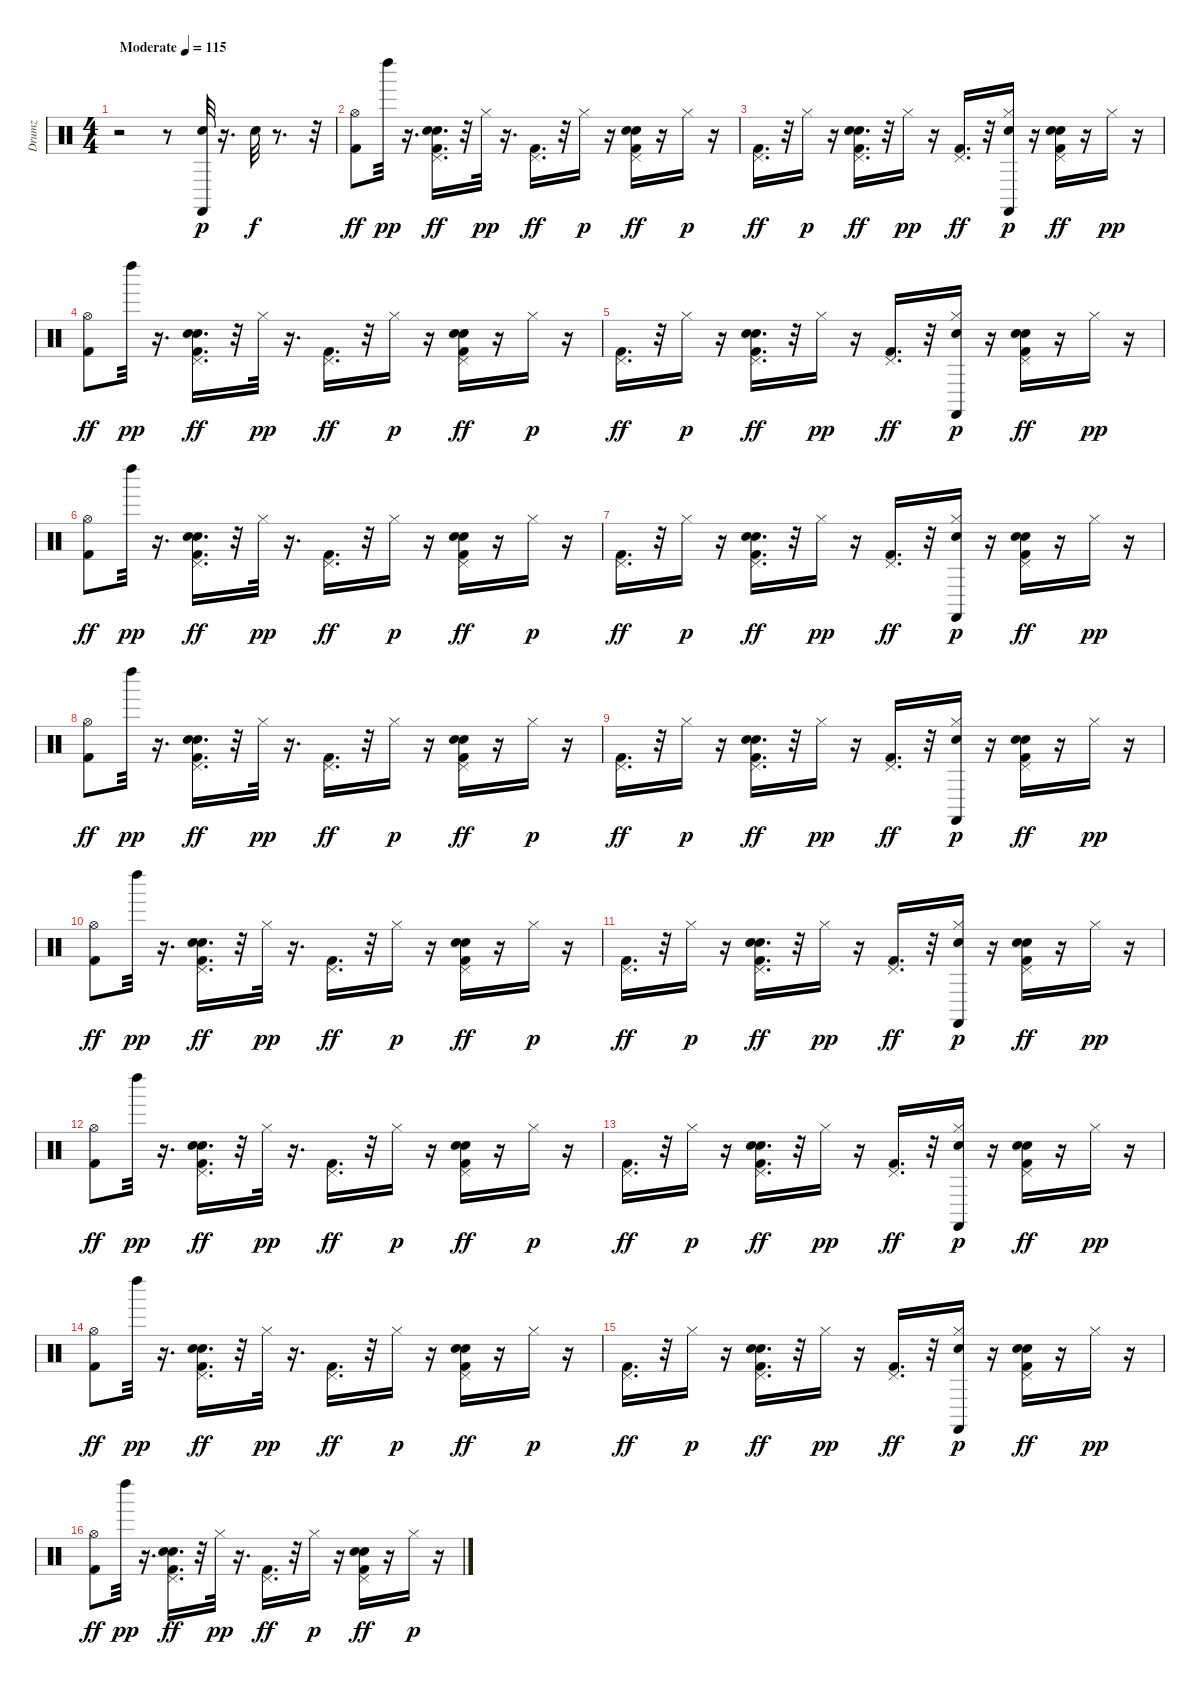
\track ("Drumz" "Drumz") {instrument percussion}
\staff {score}
\articulation defaults
\ts (4 4)
\tempo (115 "Moderate")
\clef neutral
\ks c
r.2{dy p} r.8 ("Castanets (hit)" "Hand Clap (hit)").32 r.16{d} "Hand Clap (hit)".32{dy f} r.8{d} r.32 |
("Hi-Hat (open)" "Kick (hit) 2").8{dy ff} "Left Maraca (hit)".32{dy pp} r.16{d} ("Pedal Hi-Hat (hit)" "Kick (hit) 2" "Hand Clap (hit)" "Electric Snare (hit)").16{d dy ff} r.32 "Hi-Hat (closed)".32{dy pp} r.16{d} ("Pedal Hi-Hat (hit)" "Kick (hit) 2").16{d dy ff} r.32 "Hi-Hat (closed)".16{dy p} r.16 ("Pedal Hi-Hat (hit)" "Kick (hit) 2" "Electric Snare (hit)" "Hand Clap (hit)").16{dy ff} r.16 "Hi-Hat (closed)".16{dy p} r.16 |
("Kick (hit) 2" "Pedal Hi-Hat (hit)").16{d dy ff} r.32 "Hi-Hat (closed)".16{dy p} r.16 ("Kick (hit) 2" "Pedal Hi-Hat (hit)" "Hand Clap (hit)" "Electric Snare (hit)").16{d dy ff} r.32 "Hi-Hat (closed)".16{dy pp} r.16 ("Pedal Hi-Hat (hit)" "Kick (hit) 2").16{d dy ff} r.32 ("Hi-Hat (closed)" "Castanets (hit)" "Hand Clap (hit)").16{dy p} r.16 ("Pedal Hi-Hat (hit)" "Kick (hit) 2" "Hand Clap (hit)" "Electric Snare (hit)").16{dy ff} r.16 "Hi-Hat (closed)".16{dy pp} r.16 |
("Hi-Hat (open)" "Kick (hit) 2").8{dy ff} "Left Maraca (hit)".32{dy pp} r.16{d} ("Pedal Hi-Hat (hit)" "Kick (hit) 2" "Hand Clap (hit)" "Electric Snare (hit)").16{d dy ff} r.32 "Hi-Hat (closed)".32{dy pp} r.16{d} ("Pedal Hi-Hat (hit)" "Kick (hit) 2").16{d dy ff} r.32 "Hi-Hat (closed)".16{dy p} r.16 ("Pedal Hi-Hat (hit)" "Kick (hit) 2" "Electric Snare (hit)" "Hand Clap (hit)").16{dy ff} r.16 "Hi-Hat (closed)".16{dy p} r.16 |
("Kick (hit) 2" "Pedal Hi-Hat (hit)").16{d dy ff} r.32 "Hi-Hat (closed)".16{dy p} r.16 ("Kick (hit) 2" "Pedal Hi-Hat (hit)" "Hand Clap (hit)" "Electric Snare (hit)").16{d dy ff} r.32 "Hi-Hat (closed)".16{dy pp} r.16 ("Pedal Hi-Hat (hit)" "Kick (hit) 2").16{d dy ff} r.32 ("Hi-Hat (closed)" "Castanets (hit)" "Hand Clap (hit)").16{dy p} r.16 ("Pedal Hi-Hat (hit)" "Kick (hit) 2" "Hand Clap (hit)" "Electric Snare (hit)").16{dy ff} r.16 "Hi-Hat (closed)".16{dy pp} r.16 |
("Hi-Hat (open)" "Kick (hit) 2").8{dy ff} "Left Maraca (hit)".32{dy pp} r.16{d} ("Pedal Hi-Hat (hit)" "Kick (hit) 2" "Hand Clap (hit)" "Electric Snare (hit)").16{d dy ff} r.32 "Hi-Hat (closed)".32{dy pp} r.16{d} ("Pedal Hi-Hat (hit)" "Kick (hit) 2").16{d dy ff} r.32 "Hi-Hat (closed)".16{dy p} r.16 ("Pedal Hi-Hat (hit)" "Kick (hit) 2" "Electric Snare (hit)" "Hand Clap (hit)").16{dy ff} r.16 "Hi-Hat (closed)".16{dy p} r.16 |
("Kick (hit) 2" "Pedal Hi-Hat (hit)").16{d dy ff} r.32 "Hi-Hat (closed)".16{dy p} r.16 ("Kick (hit) 2" "Pedal Hi-Hat (hit)" "Hand Clap (hit)" "Electric Snare (hit)").16{d dy ff} r.32 "Hi-Hat (closed)".16{dy pp} r.16 ("Pedal Hi-Hat (hit)" "Kick (hit) 2").16{d dy ff} r.32 ("Hi-Hat (closed)" "Castanets (hit)" "Hand Clap (hit)").16{dy p} r.16 ("Pedal Hi-Hat (hit)" "Kick (hit) 2" "Hand Clap (hit)" "Electric Snare (hit)").16{dy ff} r.16 "Hi-Hat (closed)".16{dy pp} r.16 |
("Hi-Hat (open)" "Kick (hit) 2").8{dy ff} "Left Maraca (hit)".32{dy pp} r.16{d} ("Pedal Hi-Hat (hit)" "Kick (hit) 2" "Hand Clap (hit)" "Electric Snare (hit)").16{d dy ff} r.32 "Hi-Hat (closed)".32{dy pp} r.16{d} ("Pedal Hi-Hat (hit)" "Kick (hit) 2").16{d dy ff} r.32 "Hi-Hat (closed)".16{dy p} r.16 ("Pedal Hi-Hat (hit)" "Kick (hit) 2" "Electric Snare (hit)" "Hand Clap (hit)").16{dy ff} r.16 "Hi-Hat (closed)".16{dy p} r.16 |
("Kick (hit) 2" "Pedal Hi-Hat (hit)").16{d dy ff} r.32 "Hi-Hat (closed)".16{dy p} r.16 ("Kick (hit) 2" "Pedal Hi-Hat (hit)" "Hand Clap (hit)" "Electric Snare (hit)").16{d dy ff} r.32 "Hi-Hat (closed)".16{dy pp} r.16 ("Pedal Hi-Hat (hit)" "Kick (hit) 2").16{d dy ff} r.32 ("Hi-Hat (closed)" "Castanets (hit)" "Hand Clap (hit)").16{dy p} r.16 ("Pedal Hi-Hat (hit)" "Kick (hit) 2" "Hand Clap (hit)" "Electric Snare (hit)").16{dy ff} r.16 "Hi-Hat (closed)".16{dy pp} r.16 |
("Hi-Hat (open)" "Kick (hit) 2").8{dy ff} "Left Maraca (hit)".32{dy pp} r.16{d} ("Pedal Hi-Hat (hit)" "Kick (hit) 2" "Hand Clap (hit)" "Electric Snare (hit)").16{d dy ff} r.32 "Hi-Hat (closed)".32{dy pp} r.16{d} ("Pedal Hi-Hat (hit)" "Kick (hit) 2").16{d dy ff} r.32 "Hi-Hat (closed)".16{dy p} r.16 ("Pedal Hi-Hat (hit)" "Kick (hit) 2" "Electric Snare (hit)" "Hand Clap (hit)").16{dy ff} r.16 "Hi-Hat (closed)".16{dy p} r.16 |
("Kick (hit) 2" "Pedal Hi-Hat (hit)").16{d dy ff} r.32 "Hi-Hat (closed)".16{dy p} r.16 ("Kick (hit) 2" "Pedal Hi-Hat (hit)" "Hand Clap (hit)" "Electric Snare (hit)").16{d dy ff} r.32 "Hi-Hat (closed)".16{dy pp} r.16 ("Pedal Hi-Hat (hit)" "Kick (hit) 2").16{d dy ff} r.32 ("Hi-Hat (closed)" "Castanets (hit)" "Hand Clap (hit)").16{dy p} r.16 ("Pedal Hi-Hat (hit)" "Kick (hit) 2" "Hand Clap (hit)" "Electric Snare (hit)").16{dy ff} r.16 "Hi-Hat (closed)".16{dy pp} r.16 |
("Hi-Hat (open)" "Kick (hit) 2").8{dy ff} "Left Maraca (hit)".32{dy pp} r.16{d} ("Pedal Hi-Hat (hit)" "Kick (hit) 2" "Hand Clap (hit)" "Electric Snare (hit)").16{d dy ff} r.32 "Hi-Hat (closed)".32{dy pp} r.16{d} ("Pedal Hi-Hat (hit)" "Kick (hit) 2").16{d dy ff} r.32 "Hi-Hat (closed)".16{dy p} r.16 ("Pedal Hi-Hat (hit)" "Kick (hit) 2" "Electric Snare (hit)" "Hand Clap (hit)").16{dy ff} r.16 "Hi-Hat (closed)".16{dy p} r.16 |
("Kick (hit) 2" "Pedal Hi-Hat (hit)").16{d dy ff} r.32 "Hi-Hat (closed)".16{dy p} r.16 ("Kick (hit) 2" "Pedal Hi-Hat (hit)" "Hand Clap (hit)" "Electric Snare (hit)").16{d dy ff} r.32 "Hi-Hat (closed)".16{dy pp} r.16 ("Pedal Hi-Hat (hit)" "Kick (hit) 2").16{d dy ff} r.32 ("Hi-Hat (closed)" "Castanets (hit)" "Hand Clap (hit)").16{dy p} r.16 ("Pedal Hi-Hat (hit)" "Kick (hit) 2" "Hand Clap (hit)" "Electric Snare (hit)").16{dy ff} r.16 "Hi-Hat (closed)".16{dy pp} r.16 |
("Hi-Hat (open)" "Kick (hit) 2").8{dy ff} "Left Maraca (hit)".32{dy pp} r.16{d} ("Pedal Hi-Hat (hit)" "Kick (hit) 2" "Hand Clap (hit)" "Electric Snare (hit)").16{d dy ff} r.32 "Hi-Hat (closed)".32{dy pp} r.16{d} ("Pedal Hi-Hat (hit)" "Kick (hit) 2").16{d dy ff} r.32 "Hi-Hat (closed)".16{dy p} r.16 ("Pedal Hi-Hat (hit)" "Kick (hit) 2" "Electric Snare (hit)" "Hand Clap (hit)").16{dy ff} r.16 "Hi-Hat (closed)".16{dy p} r.16 |
("Kick (hit) 2" "Pedal Hi-Hat (hit)").16{d dy ff} r.32 "Hi-Hat (closed)".16{dy p} r.16 ("Kick (hit) 2" "Pedal Hi-Hat (hit)" "Hand Clap (hit)" "Electric Snare (hit)").16{d dy ff} r.32 "Hi-Hat (closed)".16{dy pp} r.16 ("Pedal Hi-Hat (hit)" "Kick (hit) 2").16{d dy ff} r.32 ("Hi-Hat (closed)" "Castanets (hit)" "Hand Clap (hit)").16{dy p} r.16 ("Pedal Hi-Hat (hit)" "Kick (hit) 2" "Hand Clap (hit)" "Electric Snare (hit)").16{dy ff} r.16 "Hi-Hat (closed)".16{dy pp} r.16 |
("Hi-Hat (open)" "Kick (hit) 2").8{dy ff} "Left Maraca (hit)".32{dy pp} r.16{d} ("Pedal Hi-Hat (hit)" "Kick (hit) 2" "Hand Clap (hit)" "Electric Snare (hit)").16{d dy ff} r.32 "Hi-Hat (closed)".32{dy pp} r.16{d} ("Pedal Hi-Hat (hit)" "Kick (hit) 2").16{d dy ff} r.32 "Hi-Hat (closed)".16{dy p} r.16 ("Pedal Hi-Hat (hit)" "Kick (hit) 2" "Electric Snare (hit)" "Hand Clap (hit)").16{dy ff} r.16 "Hi-Hat (closed)".16{dy p} r.16
